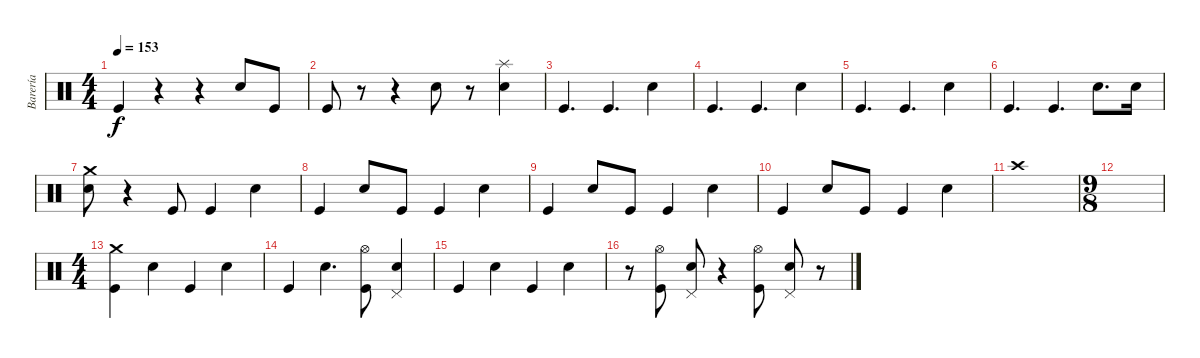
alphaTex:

\track ("Barería" "Barería") {instrument percussion}
\staff {score}
\articulation defaults
\ts (4 4)
\tempo 153
\clef neutral
\ks c "Kick (hit)".4{dy f}
r.4 r.4 "Snare (hit) 2".8 "Kick (hit)".8 |
"Kick (hit)".8 r.8 r.4 "Snare (hit) 2".8 r.8 ("Splash (hit)" "Snare (hit) 2").4 |
"Kick (hit)".4{d} "Kick (hit)".4{d} "Snare (hit) 2".4 |
"Kick (hit)".4{d} "Kick (hit)".4{d} "Snare (hit) 2".4 |
"Kick (hit)".4{d} "Kick (hit)".4{d} "Snare (hit) 2".4 |
"Kick (hit)".4{d} "Kick (hit)".4{d} "Snare (hit) 2".8{d} "Snare (hit) 2".16 |
("Crash medium (hit)" "Snare (hit) 2").8 r.4 "Kick (hit)".8 "Kick (hit)".4 "Snare (hit) 2".4 |
"Kick (hit)".4 "Snare (hit) 2".8 "Kick (hit)".8 "Kick (hit)".4 "Snare (hit) 2".4 |
"Kick (hit)".4 "Snare (hit) 2".8 "Kick (hit)".8 "Kick (hit)".4 "Snare (hit) 2".4 |
"Kick (hit)".4 "Snare (hit) 2".8 "Kick (hit)".8 "Kick (hit)".4 "Snare (hit) 2".4 |
"Crash high (hit)".1 |
\ts (9 8)
|
\ts (4 4)
("Crash medium (hit)" "Kick (hit)").4 "Snare (hit) 2".4 "Kick (hit)".4 "Snare (hit) 2".4 |
"Kick (hit)".4 "Snare (hit) 2".4{d} ("Hi-Hat (open)" "Kick (hit)").8 ("Pedal Hi-Hat (hit)" "Snare (hit) 2").4 |
"Kick (hit)".4 "Snare (hit) 2".4 "Kick (hit)".4 "Snare (hit) 2".4 |
r.8 ("Hi-Hat (open)" "Kick (hit)").8 ("Pedal Hi-Hat (hit)" "Snare (hit) 2").8 r.4 ("Hi-Hat (open)" "Kick (hit)").8 ("Pedal Hi-Hat (hit)" "Snare (hit) 2").8 r.8
